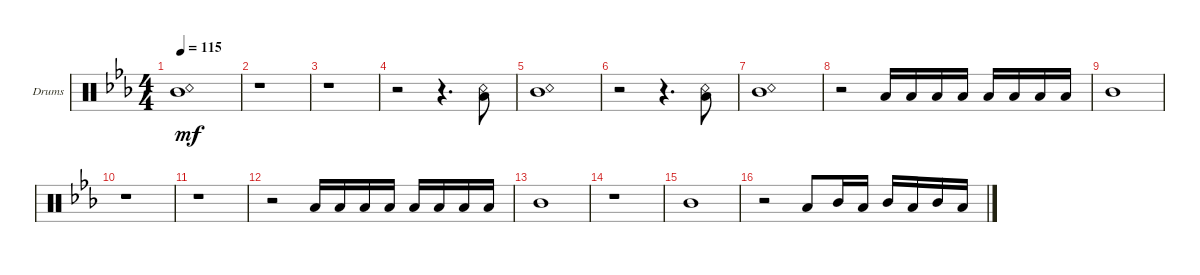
\bracketExtendMode groupsimilarinstruments
\firstSystemTrackNameOrientation horizontal
\otherSystemsTrackNameOrientation horizontal
\track ("Drums" "Drums") {solo instrument percussion}
\staff {score}
\articulation defaults
\ts (4 4)
\tempo 115
\clef neutral
\ks eb
("Mid Tom (hit)" "Snare (rim shot)").1{dy mf} |
r.1 |
r.1 |
r.2 r.4{d} ("Snare (rim shot)" "Low Tom (hit)").8 |
("Mid Tom (hit)" "Snare (rim shot)").1 |
r.2 r.4{d} ("Snare (rim shot)" "Low Tom (hit)").8 |
("Mid Tom (hit)" "Snare (rim shot)").1 |
r.2 "Low Tom (hit)".16 "Low Tom (hit)".16 "Low Tom (hit)".16 "Low Tom (hit)".16 "Low Tom (hit)".16 "Low Tom (hit)".16 "Low Tom (hit)".16 "Low Tom (hit)".16 |
"Mid Tom (hit)".1 |
r.1 |
r.1 |
r.2 "Low Tom (hit)".16 "Low Tom (hit)".16 "Low Tom (hit)".16 "Low Tom (hit)".16 "Low Tom (hit)".16 "Low Tom (hit)".16 "Low Tom (hit)".16 "Low Tom (hit)".16 |
"Mid Tom (hit)".1 |
r.1 |
"Mid Tom (hit)".1 |
r.2 "Low Tom (hit)".8 "Mid Tom (hit)".16 "Low Tom (hit)".16 "Mid Tom (hit)".16 "Low Tom (hit)".16 "Mid Tom (hit)".16 "Low Tom (hit)".16
